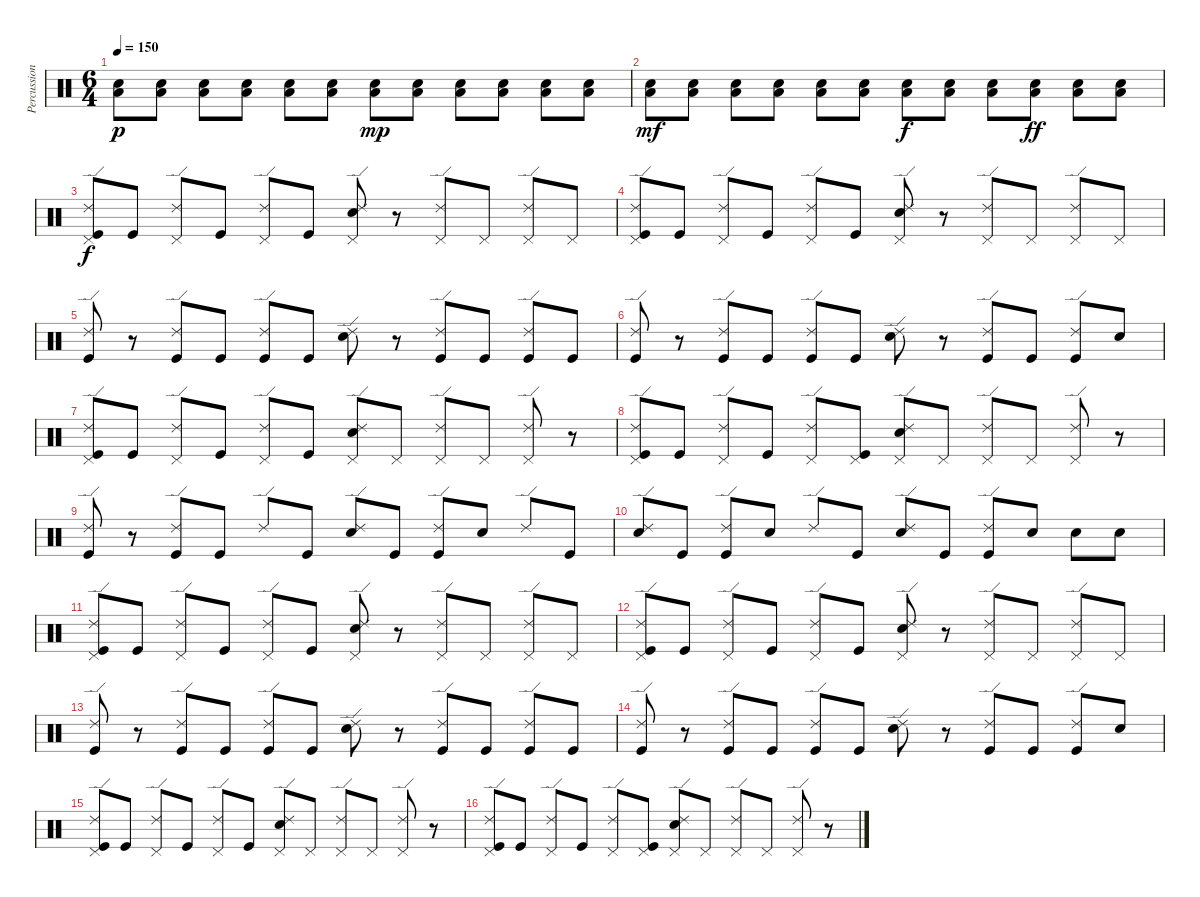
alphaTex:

\track ("Percussion" "Percussion") {instrument percussion}
\staff {score}
\articulation defaults
\ts (6 4)
\tempo 150
\clef neutral
\ks c
("Low Floor Tom (hit)" "Snare (hit) 2").8{dy p} ("Low Floor Tom (hit)" "Snare (hit) 2").8 ("Low Floor Tom (hit)" "Snare (hit) 2").8 ("Low Floor Tom (hit)" "Snare (hit) 2").8 ("Low Floor Tom (hit)" "Snare (hit) 2").8 ("Low Floor Tom (hit)" "Snare (hit) 2").8 ("Low Floor Tom (hit)" "Snare (hit) 2").8{dy mp} ("Low Floor Tom (hit)" "Snare (hit) 2").8 ("Low Floor Tom (hit)" "Snare (hit) 2").8 ("Low Floor Tom (hit)" "Snare (hit) 2").8 ("Low Floor Tom (hit)" "Snare (hit) 2").8 ("Low Floor Tom (hit)" "Snare (hit) 2").8 |
("Low Floor Tom (hit)" "Snare (hit) 2").8{dy mf} ("Low Floor Tom (hit)" "Snare (hit) 2").8 ("Low Floor Tom (hit)" "Snare (hit) 2").8 ("Low Floor Tom (hit)" "Snare (hit) 2").8 ("Low Floor Tom (hit)" "Snare (hit) 2").8 ("Low Floor Tom (hit)" "Snare (hit) 2").8 ("Low Floor Tom (hit)" "Snare (hit) 2").8{dy f} ("Low Floor Tom (hit)" "Snare (hit) 2").8 ("Low Floor Tom (hit)" "Snare (hit) 2").8 ("Low Floor Tom (hit)" "Snare (hit) 2").8{dy ff} ("Low Floor Tom (hit)" "Snare (hit) 2").8 ("Low Floor Tom (hit)" "Snare (hit) 2").8 |
("Ride (edge) 2" "Pedal Hi-Hat (hit)" "Kick (hit)").8{dy f} "Kick (hit)".8 ("Ride (edge) 2" "Pedal Hi-Hat (hit)").8 "Kick (hit)".8 ("Ride (edge) 2" "Pedal Hi-Hat (hit)").8 "Kick (hit)".8 ("Ride (edge) 2" "Pedal Hi-Hat (hit)" "Snare (hit) 2").8 r.8 ("Ride (edge) 2" "Pedal Hi-Hat (hit)").8 "Pedal Hi-Hat (hit)".8 ("Ride (edge) 2" "Pedal Hi-Hat (hit)").8 "Pedal Hi-Hat (hit)".8 |
("Ride (edge) 2" "Pedal Hi-Hat (hit)" "Kick (hit)").8 "Kick (hit)".8 ("Ride (edge) 2" "Pedal Hi-Hat (hit)").8 "Kick (hit)".8 ("Ride (edge) 2" "Pedal Hi-Hat (hit)").8 "Kick (hit)".8 ("Ride (edge) 2" "Pedal Hi-Hat (hit)" "Snare (hit) 2").8 r.8 ("Ride (edge) 2" "Pedal Hi-Hat (hit)").8 "Pedal Hi-Hat (hit)".8 ("Ride (edge) 2" "Pedal Hi-Hat (hit)").8 "Pedal Hi-Hat (hit)".8 |
("Ride (edge) 2" "Kick (hit)").8 r.8 ("Ride (edge) 2" "Kick (hit)").8 "Kick (hit)".8 ("Ride (edge) 2" "Kick (hit)").8 "Kick (hit)".8 ("Ride (edge) 2" "Snare (hit) 2").8 r.8 ("Ride (edge) 2" "Kick (hit)").8 "Kick (hit)".8 ("Ride (edge) 2" "Kick (hit)").8 "Kick (hit)".8 |
("Ride (edge) 2" "Kick (hit)").8 r.8 ("Ride (edge) 2" "Kick (hit)").8 "Kick (hit)".8 ("Ride (edge) 2" "Kick (hit)").8 "Kick (hit)".8 ("Ride (edge) 2" "Snare (hit) 2").8 r.8 ("Ride (edge) 2" "Kick (hit)").8 "Kick (hit)".8 ("Ride (edge) 2" "Kick (hit)").8 "Snare (hit) 2".8 |
("Ride (edge) 2" "Pedal Hi-Hat (hit)" "Kick (hit)").8 "Kick (hit)".8 ("Ride (edge) 2" "Pedal Hi-Hat (hit)").8 "Kick (hit)".8 ("Ride (edge) 2" "Pedal Hi-Hat (hit)").8 "Kick (hit)".8 ("Ride (edge) 2" "Pedal Hi-Hat (hit)" "Snare (hit) 2").8 "Pedal Hi-Hat (hit)".8 ("Ride (edge) 2" "Pedal Hi-Hat (hit)").8 "Pedal Hi-Hat (hit)".8 ("Ride (edge) 2" "Pedal Hi-Hat (hit)").8 r.8 |
("Ride (edge) 2" "Pedal Hi-Hat (hit)" "Kick (hit)").8 "Kick (hit)".8 ("Ride (edge) 2" "Pedal Hi-Hat (hit)").8 "Kick (hit)".8 ("Ride (edge) 2" "Pedal Hi-Hat (hit)").8 ("Pedal Hi-Hat (hit)" "Kick (hit)").8 ("Ride (edge) 2" "Pedal Hi-Hat (hit)" "Snare (hit) 2").8 "Pedal Hi-Hat (hit)".8 ("Ride (edge) 2" "Pedal Hi-Hat (hit)").8 "Pedal Hi-Hat (hit)".8 ("Ride (edge) 2" "Pedal Hi-Hat (hit)").8 r.8 |
("Ride (edge) 2" "Kick (hit)").8 r.8 ("Ride (edge) 2" "Kick (hit)").8 "Kick (hit)".8 "Ride (edge) 2".8 "Kick (hit)".8 ("Ride (edge) 2" "Snare (hit) 2").8 "Kick (hit)".8 ("Ride (edge) 2" "Kick (hit)").8 "Snare (hit) 2".8 "Ride (edge) 2".8 "Kick (hit)".8 |
("Ride (edge) 2" "Snare (hit) 2").8 "Kick (hit)".8 ("Ride (edge) 2" "Kick (hit)").8 "Snare (hit) 2".8 "Ride (edge) 2".8 "Kick (hit)".8 ("Ride (edge) 2" "Snare (hit) 2").8 "Kick (hit)".8 ("Ride (edge) 2" "Kick (hit)").8 "Snare (hit) 2".8 "Snare (hit) 2".8 "Snare (hit) 2".8 |
("Ride (edge) 2" "Pedal Hi-Hat (hit)" "Kick (hit)").8 "Kick (hit)".8 ("Ride (edge) 2" "Pedal Hi-Hat (hit)").8 "Kick (hit)".8 ("Ride (edge) 2" "Pedal Hi-Hat (hit)").8 "Kick (hit)".8 ("Ride (edge) 2" "Pedal Hi-Hat (hit)" "Snare (hit) 2").8 r.8 ("Ride (edge) 2" "Pedal Hi-Hat (hit)").8 "Pedal Hi-Hat (hit)".8 ("Ride (edge) 2" "Pedal Hi-Hat (hit)").8 "Pedal Hi-Hat (hit)".8 |
("Ride (edge) 2" "Pedal Hi-Hat (hit)" "Kick (hit)").8 "Kick (hit)".8 ("Ride (edge) 2" "Pedal Hi-Hat (hit)").8 "Kick (hit)".8 ("Ride (edge) 2" "Pedal Hi-Hat (hit)").8 "Kick (hit)".8 ("Ride (edge) 2" "Pedal Hi-Hat (hit)" "Snare (hit) 2").8 r.8 ("Ride (edge) 2" "Pedal Hi-Hat (hit)").8 "Pedal Hi-Hat (hit)".8 ("Ride (edge) 2" "Pedal Hi-Hat (hit)").8 "Pedal Hi-Hat (hit)".8 |
("Ride (edge) 2" "Kick (hit)").8 r.8 ("Ride (edge) 2" "Kick (hit)").8 "Kick (hit)".8 ("Ride (edge) 2" "Kick (hit)").8 "Kick (hit)".8 ("Ride (edge) 2" "Snare (hit) 2").8 r.8 ("Ride (edge) 2" "Kick (hit)").8 "Kick (hit)".8 ("Ride (edge) 2" "Kick (hit)").8 "Kick (hit)".8 |
("Ride (edge) 2" "Kick (hit)").8 r.8 ("Ride (edge) 2" "Kick (hit)").8 "Kick (hit)".8 ("Ride (edge) 2" "Kick (hit)").8 "Kick (hit)".8 ("Ride (edge) 2" "Snare (hit) 2").8 r.8 ("Ride (edge) 2" "Kick (hit)").8 "Kick (hit)".8 ("Ride (edge) 2" "Kick (hit)").8 "Snare (hit) 2".8 |
("Ride (edge) 2" "Pedal Hi-Hat (hit)" "Kick (hit)").8 "Kick (hit)".8 ("Ride (edge) 2" "Pedal Hi-Hat (hit)").8 "Kick (hit)".8 ("Ride (edge) 2" "Pedal Hi-Hat (hit)").8 "Kick (hit)".8 ("Ride (edge) 2" "Pedal Hi-Hat (hit)" "Snare (hit) 2").8 "Pedal Hi-Hat (hit)".8 ("Ride (edge) 2" "Pedal Hi-Hat (hit)").8 "Pedal Hi-Hat (hit)".8 ("Ride (edge) 2" "Pedal Hi-Hat (hit)").8 r.8 |
("Ride (edge) 2" "Pedal Hi-Hat (hit)" "Kick (hit)").8 "Kick (hit)".8 ("Ride (edge) 2" "Pedal Hi-Hat (hit)").8 "Kick (hit)".8 ("Ride (edge) 2" "Pedal Hi-Hat (hit)").8 ("Pedal Hi-Hat (hit)" "Kick (hit)").8 ("Ride (edge) 2" "Pedal Hi-Hat (hit)" "Snare (hit) 2").8 "Pedal Hi-Hat (hit)".8 ("Ride (edge) 2" "Pedal Hi-Hat (hit)").8 "Pedal Hi-Hat (hit)".8 ("Ride (edge) 2" "Pedal Hi-Hat (hit)").8 r.8
